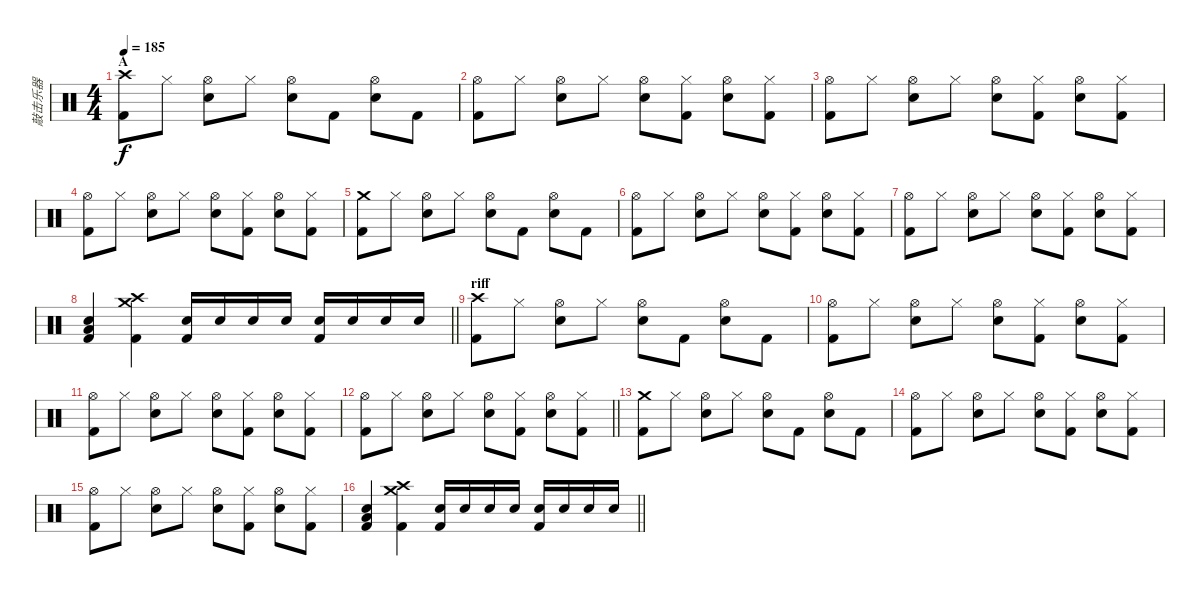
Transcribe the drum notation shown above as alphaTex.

\track ("敲击乐器" "敲击乐器") {instrument percussion}
\staff {score}
\articulation defaults
\ts (4 4)
\section ("" "A")
\tempo 185
\clef neutral
\ks c
("Crash high (hit)" "Kick (hit) 2").8{dy f} "Hi-Hat (closed)".8 ("Hi-Hat (open)" "Snare (hit) 2").8 "Hi-Hat (closed)".8 ("Hi-Hat (open)" "Snare (hit) 2").8 "Kick (hit) 2".8 ("Hi-Hat (open)" "Snare (hit) 2").8 "Kick (hit) 2".8 |
("Hi-Hat (open)" "Kick (hit) 2").8 "Hi-Hat (closed)".8 ("Hi-Hat (open)" "Snare (hit) 2").8 "Hi-Hat (closed)".8 ("Hi-Hat (open)" "Snare (hit) 2").8 ("Hi-Hat (closed)" "Kick (hit) 2").8 ("Hi-Hat (open)" "Snare (hit) 2").8 ("Hi-Hat (closed)" "Kick (hit) 2").8 |
("Hi-Hat (open)" "Kick (hit) 2").8 "Hi-Hat (closed)".8 ("Hi-Hat (open)" "Snare (hit) 2").8 "Hi-Hat (closed)".8 ("Hi-Hat (open)" "Snare (hit) 2").8 ("Hi-Hat (closed)" "Kick (hit) 2").8 ("Hi-Hat (open)" "Snare (hit) 2").8 ("Hi-Hat (closed)" "Kick (hit) 2").8 |
("Hi-Hat (open)" "Kick (hit) 2").8 "Hi-Hat (closed)".8 ("Hi-Hat (open)" "Snare (hit) 2").8 "Hi-Hat (closed)".8 ("Hi-Hat (open)" "Snare (hit) 2").8 ("Hi-Hat (closed)" "Kick (hit) 2").8 ("Hi-Hat (open)" "Snare (hit) 2").8 ("Hi-Hat (closed)" "Kick (hit) 2").8 |
("Crash medium (hit)" "Kick (hit) 2").8 "Hi-Hat (closed)".8 ("Hi-Hat (open)" "Snare (hit) 2").8 "Hi-Hat (closed)".8 ("Hi-Hat (open)" "Snare (hit) 2").8 "Kick (hit) 2".8 ("Hi-Hat (open)" "Snare (hit) 2").8 "Kick (hit) 2".8 |
("Hi-Hat (open)" "Kick (hit) 2").8 "Hi-Hat (closed)".8 ("Hi-Hat (open)" "Snare (hit) 2").8 "Hi-Hat (closed)".8 ("Hi-Hat (open)" "Snare (hit) 2").8 ("Hi-Hat (closed)" "Kick (hit) 2").8 ("Hi-Hat (open)" "Snare (hit) 2").8 ("Hi-Hat (closed)" "Kick (hit) 2").8 |
("Hi-Hat (open)" "Kick (hit) 2").8 "Hi-Hat (closed)".8 ("Hi-Hat (open)" "Snare (hit) 2").8 "Hi-Hat (closed)".8 ("Hi-Hat (open)" "Snare (hit) 2").8 ("Hi-Hat (closed)" "Kick (hit) 2").8 ("Hi-Hat (open)" "Snare (hit) 2").8 ("Hi-Hat (closed)" "Kick (hit) 2").8 |
\barLineRight lightlight
("Low Tom (hit)" "Snare (hit) 2" "Kick (hit) 2").4 ("Crash medium (hit)" "Crash high (hit)" "Kick (hit) 2").4 ("Snare (hit) 2" "Kick (hit) 2").16 "Snare (hit) 2".16 "Snare (hit) 2".16 "Snare (hit) 2".16 ("Snare (hit) 2" "Kick (hit) 2").16 "Snare (hit) 2".16 "Snare (hit) 2".16 "Snare (hit) 2".16 |
\section ("" "riff")
("Crash high (hit)" "Kick (hit) 2").8 "Hi-Hat (closed)".8 ("Hi-Hat (open)" "Snare (hit) 2").8 "Hi-Hat (closed)".8 ("Hi-Hat (open)" "Snare (hit) 2").8 "Kick (hit) 2".8 ("Hi-Hat (open)" "Snare (hit) 2").8 "Kick (hit) 2".8 |
("Hi-Hat (open)" "Kick (hit) 2").8 "Hi-Hat (closed)".8 ("Hi-Hat (open)" "Snare (hit) 2").8 "Hi-Hat (closed)".8 ("Hi-Hat (open)" "Snare (hit) 2").8 ("Hi-Hat (closed)" "Kick (hit) 2").8 ("Hi-Hat (open)" "Snare (hit) 2").8 ("Hi-Hat (closed)" "Kick (hit) 2").8 |
("Hi-Hat (open)" "Kick (hit) 2").8 "Hi-Hat (closed)".8 ("Hi-Hat (open)" "Snare (hit) 2").8 "Hi-Hat (closed)".8 ("Hi-Hat (open)" "Snare (hit) 2").8 ("Hi-Hat (closed)" "Kick (hit) 2").8 ("Hi-Hat (open)" "Snare (hit) 2").8 ("Hi-Hat (closed)" "Kick (hit) 2").8 |
\barLineRight lightlight
("Hi-Hat (open)" "Kick (hit) 2").8 "Hi-Hat (closed)".8 ("Hi-Hat (open)" "Snare (hit) 2").8 "Hi-Hat (closed)".8 ("Hi-Hat (open)" "Snare (hit) 2").8 ("Hi-Hat (closed)" "Kick (hit) 2").8 ("Hi-Hat (open)" "Snare (hit) 2").8 ("Hi-Hat (closed)" "Kick (hit) 2").8 |
("Crash medium (hit)" "Kick (hit) 2").8 "Hi-Hat (closed)".8 ("Hi-Hat (open)" "Snare (hit) 2").8 "Hi-Hat (closed)".8 ("Hi-Hat (open)" "Snare (hit) 2").8 "Kick (hit) 2".8 ("Hi-Hat (open)" "Snare (hit) 2").8 "Kick (hit) 2".8 |
("Hi-Hat (open)" "Kick (hit) 2").8 "Hi-Hat (closed)".8 ("Hi-Hat (open)" "Snare (hit) 2").8 "Hi-Hat (closed)".8 ("Hi-Hat (open)" "Snare (hit) 2").8 ("Hi-Hat (closed)" "Kick (hit) 2").8 ("Hi-Hat (open)" "Snare (hit) 2").8 ("Hi-Hat (closed)" "Kick (hit) 2").8 |
("Hi-Hat (open)" "Kick (hit) 2").8 "Hi-Hat (closed)".8 ("Hi-Hat (open)" "Snare (hit) 2").8 "Hi-Hat (closed)".8 ("Hi-Hat (open)" "Snare (hit) 2").8 ("Hi-Hat (closed)" "Kick (hit) 2").8 ("Hi-Hat (open)" "Snare (hit) 2").8 ("Hi-Hat (closed)" "Kick (hit) 2").8 |
\barLineRight lightlight
("Low Tom (hit)" "Snare (hit) 2" "Kick (hit) 2").4 ("Crash medium (hit)" "Crash high (hit)" "Kick (hit) 2").4 ("Snare (hit) 2" "Kick (hit) 2").16 "Snare (hit) 2".16 "Snare (hit) 2".16 "Snare (hit) 2".16 ("Snare (hit) 2" "Kick (hit) 2").16 "Snare (hit) 2".16 "Snare (hit) 2".16 "Snare (hit) 2".16
